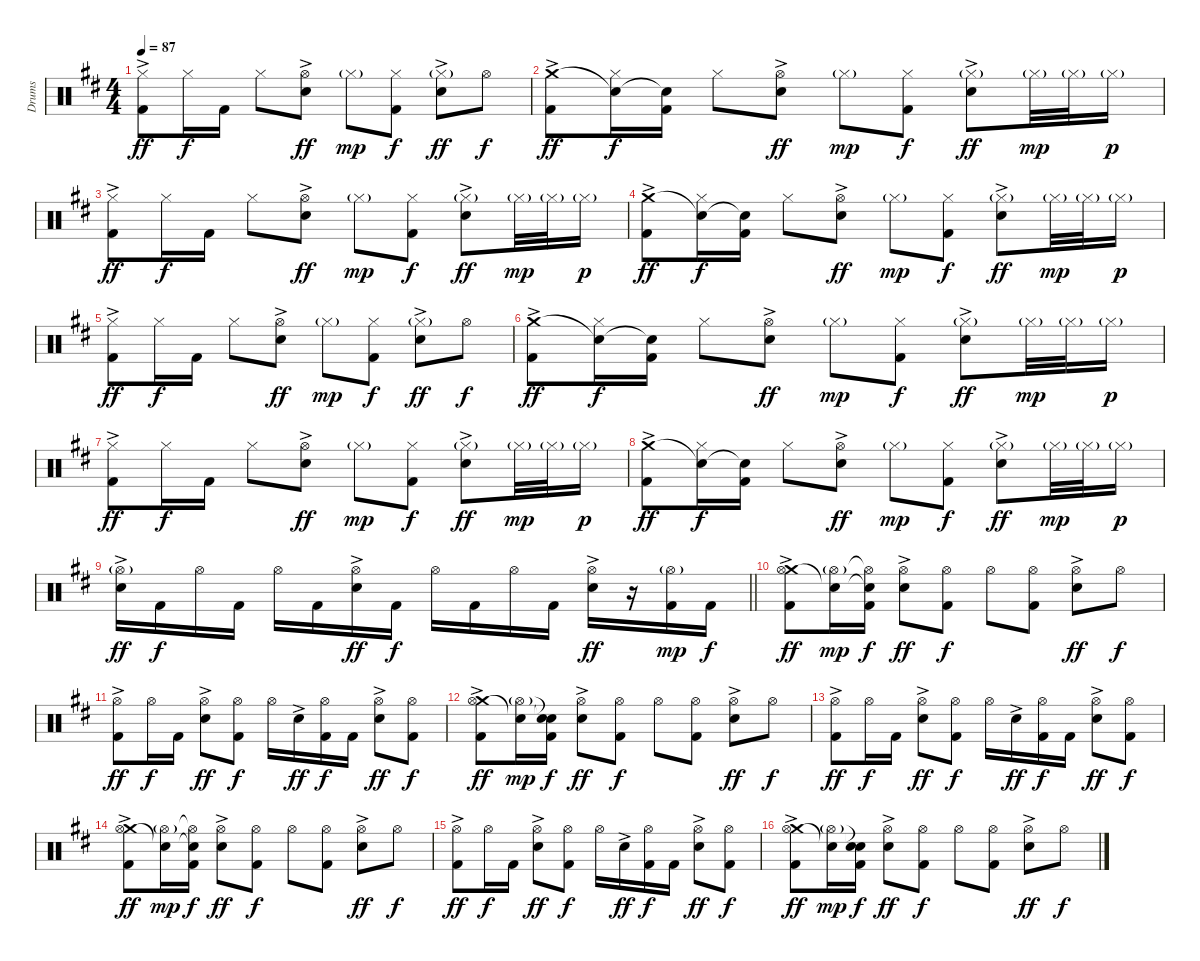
\track ("Drums" "Drums") {instrument percussion}
\staff {score}
\articulation defaults
\ts (4 4)
\tempo 87
\clef neutral
\ks d
("Hi-Hat (closed)" "Kick (hit) 2"{ac}).8{dy ff} "Hi-Hat (closed)".16{dy f} "Kick (hit) 2".16 "Hi-Hat (closed)".8 ("Hi-Hat (open)" "Electric Snare (hit)"{ac}).8{dy ff} "Hi-Hat (closed)"{g}.8{dy mp} ("Hi-Hat (closed)" "Kick (hit) 2").8{dy f} ("Hi-Hat (closed)"{g} "Electric Snare (hit)"{ac}).8{dy ff} "Hi-Hat (open)".8{dy f} |
("Crash medium (hit)" "Kick (hit) 2"{ac}).8{dy ff} ("Snare (hit)"{t} "Hi-Hat (closed)").16{dy f} ("Snare (hit)"{t} "Kick (hit) 2").16 "Hi-Hat (closed)".8 ("Hi-Hat (open)" "Electric Snare (hit)"{ac}).8{dy ff} "Hi-Hat (closed)"{g}.8{dy mp} ("Hi-Hat (closed)" "Kick (hit) 2").8{dy f} ("Hi-Hat (closed)"{g} "Electric Snare (hit)"{ac}).8{dy ff} "Hi-Hat (closed)"{g}.32{dy mp} "Hi-Hat (closed)"{g}.32 "Hi-Hat (closed)"{g}.16{dy p} |
("Hi-Hat (closed)" "Kick (hit) 2"{ac}).8{dy ff} "Hi-Hat (closed)".16{dy f} "Kick (hit) 2".16 "Hi-Hat (closed)".8 ("Hi-Hat (open)" "Electric Snare (hit)"{ac}).8{dy ff} "Hi-Hat (closed)"{g}.8{dy mp} ("Hi-Hat (closed)" "Kick (hit) 2").8{dy f} ("Hi-Hat (closed)"{g} "Electric Snare (hit)"{ac}).8{dy ff} "Hi-Hat (closed)"{g}.32{dy mp} "Hi-Hat (closed)"{g}.32 "Hi-Hat (closed)"{g}.16{dy p} |
("Crash medium (hit)" "Kick (hit) 2"{ac}).8{dy ff} ("Snare (hit)"{t} "Hi-Hat (closed)").16{dy f} ("Snare (hit)"{t} "Kick (hit) 2").16 "Hi-Hat (closed)".8 ("Hi-Hat (open)" "Electric Snare (hit)"{ac}).8{dy ff} "Hi-Hat (closed)"{g}.8{dy mp} ("Hi-Hat (closed)" "Kick (hit) 2").8{dy f} ("Hi-Hat (closed)"{g} "Electric Snare (hit)"{ac}).8{dy ff} "Hi-Hat (closed)"{g}.32{dy mp} "Hi-Hat (closed)"{g}.32 "Hi-Hat (closed)"{g}.16{dy p} |
("Hi-Hat (closed)" "Kick (hit) 2"{ac}).8{dy ff} "Hi-Hat (closed)".16{dy f} "Kick (hit) 2".16 "Hi-Hat (closed)".8 ("Hi-Hat (open)" "Electric Snare (hit)"{ac}).8{dy ff} "Hi-Hat (closed)"{g}.8{dy mp} ("Hi-Hat (closed)" "Kick (hit) 2").8{dy f} ("Hi-Hat (closed)"{g} "Electric Snare (hit)"{ac}).8{dy ff} "Hi-Hat (open)".8{dy f} |
("Crash medium (hit)" "Kick (hit) 2"{ac}).8{dy ff} ("Snare (hit)"{t} "Hi-Hat (closed)").16{dy f} ("Snare (hit)"{t} "Kick (hit) 2").16 "Hi-Hat (closed)".8 ("Hi-Hat (open)" "Electric Snare (hit)"{ac}).8{dy ff} "Hi-Hat (closed)"{g}.8{dy mp} ("Hi-Hat (closed)" "Kick (hit) 2").8{dy f} ("Hi-Hat (closed)"{g} "Electric Snare (hit)"{ac}).8{dy ff} "Hi-Hat (closed)"{g}.32{dy mp} "Hi-Hat (closed)"{g}.32 "Hi-Hat (closed)"{g}.16{dy p} |
("Hi-Hat (closed)" "Kick (hit) 2"{ac}).8{dy ff} "Hi-Hat (closed)".16{dy f} "Kick (hit) 2".16 "Hi-Hat (closed)".8 ("Hi-Hat (open)" "Electric Snare (hit)"{ac}).8{dy ff} "Hi-Hat (closed)"{g}.8{dy mp} ("Hi-Hat (closed)" "Kick (hit) 2").8{dy f} ("Hi-Hat (closed)"{g} "Electric Snare (hit)"{ac}).8{dy ff} "Hi-Hat (closed)"{g}.32{dy mp} "Hi-Hat (closed)"{g}.32 "Hi-Hat (closed)"{g}.16{dy p} |
("Crash medium (hit)" "Kick (hit) 2"{ac}).8{dy ff} ("Snare (hit)"{t} "Hi-Hat (closed)").16{dy f} ("Snare (hit)"{t} "Kick (hit) 2").16 "Hi-Hat (closed)".8 ("Hi-Hat (open)" "Electric Snare (hit)"{ac}).8{dy ff} "Hi-Hat (closed)"{g}.8{dy mp} ("Hi-Hat (closed)" "Kick (hit) 2").8{dy f} ("Hi-Hat (closed)"{g} "Electric Snare (hit)"{ac}).8{dy ff} "Hi-Hat (closed)"{g}.32{dy mp} "Hi-Hat (closed)"{g}.32 "Hi-Hat (closed)"{g}.16{dy p} |
\barLineRight lightlight
("Hi-Hat (open)"{g} "Electric Snare (hit)"{ac}).16{dy ff} "Kick (hit) 2".16{dy f} "Hi-Hat (open)".16 "Kick (hit) 2".16 "Hi-Hat (open)".16 "Kick (hit) 2".16 ("Hi-Hat (open)" "Electric Snare (hit)"{ac}).16{dy ff} "Kick (hit) 2".16{dy f} "Hi-Hat (open)".16 "Kick (hit) 2".16 "Hi-Hat (open)".16 "Kick (hit) 2".16 ("Hi-Hat (open)" "Electric Snare (hit)"{ac}).16{dy ff} r.16 ("Hi-Hat (open)"{g} "Kick (hit) 2").16{dy mp} "Kick (hit) 2".16{dy f} |
("Crash medium (hit)" "Hi-Hat (open)" "Kick (hit) 2"{ac}).8{dy ff} ("Snare (hit)"{t} "Hi-Hat (open)"{g}).16{dy mp} ("Snare (hit)"{t} "Hi-Hat (open)"{t} "Kick (hit) 2").16{dy f} ("Hi-Hat (open)" "Electric Snare (hit)"{ac}).8{dy ff} ("Hi-Hat (open)" "Kick (hit) 2").8{dy f} "Hi-Hat (open)".8 ("Hi-Hat (open)" "Kick (hit) 2").8 ("Hi-Hat (open)" "Electric Snare (hit)"{ac}).8{dy ff} "Hi-Hat (open)".8{dy f} |
("Hi-Hat (open)" "Kick (hit) 2"{ac}).8{dy ff} "Hi-Hat (open)".16{dy f} "Kick (hit) 2".16 ("Hi-Hat (open)" "Electric Snare (hit)"{ac}).8{dy ff} ("Hi-Hat (open)" "Kick (hit) 2").8{dy f} "Hi-Hat (open)".16 "Electric Snare (hit)"{ac}.16{dy ff} ("Hi-Hat (open)" "Kick (hit) 2").16{dy f} "Kick (hit) 2".16 ("Hi-Hat (open)" "Electric Snare (hit)"{ac}).8{dy ff} ("Hi-Hat (open)" "Kick (hit) 2").8{dy f} |
("Crash medium (hit)" "Hi-Hat (open)" "Kick (hit) 2"{ac}).8{dy ff} ("Snare (hit)"{t} "Hi-Hat (open)"{g}).16{dy mp} ("Snare (hit)"{t} "Snare (hit)"{t} "Kick (hit) 2").16{dy f} ("Hi-Hat (open)" "Electric Snare (hit)"{ac}).8{dy ff} ("Hi-Hat (open)" "Kick (hit) 2").8{dy f} "Hi-Hat (open)".8 ("Hi-Hat (open)" "Kick (hit) 2").8 ("Hi-Hat (open)" "Electric Snare (hit)"{ac}).8{dy ff} "Hi-Hat (open)".8{dy f} |
("Hi-Hat (open)" "Kick (hit) 2"{ac}).8{dy ff} "Hi-Hat (open)".16{dy f} "Kick (hit) 2".16 ("Hi-Hat (open)" "Electric Snare (hit)"{ac}).8{dy ff} ("Hi-Hat (open)" "Kick (hit) 2").8{dy f} "Hi-Hat (open)".16 "Electric Snare (hit)"{ac}.16{dy ff} ("Hi-Hat (open)" "Kick (hit) 2").16{dy f} "Kick (hit) 2".16 ("Hi-Hat (open)" "Electric Snare (hit)"{ac}).8{dy ff} ("Hi-Hat (open)" "Kick (hit) 2").8{dy f} |
("Crash medium (hit)" "Hi-Hat (open)" "Kick (hit) 2"{ac}).8{dy ff} ("Snare (hit)"{t} "Hi-Hat (open)"{g}).16{dy mp} ("Snare (hit)"{t} "Hi-Hat (open)"{t} "Kick (hit) 2").16{dy f} ("Hi-Hat (open)" "Electric Snare (hit)"{ac}).8{dy ff} ("Hi-Hat (open)" "Kick (hit) 2").8{dy f} "Hi-Hat (open)".8 ("Hi-Hat (open)" "Kick (hit) 2").8 ("Hi-Hat (open)" "Electric Snare (hit)"{ac}).8{dy ff} "Hi-Hat (open)".8{dy f} |
("Hi-Hat (open)" "Kick (hit) 2"{ac}).8{dy ff} "Hi-Hat (open)".16{dy f} "Kick (hit) 2".16 ("Hi-Hat (open)" "Electric Snare (hit)"{ac}).8{dy ff} ("Hi-Hat (open)" "Kick (hit) 2").8{dy f} "Hi-Hat (open)".16 "Electric Snare (hit)"{ac}.16{dy ff} ("Hi-Hat (open)" "Kick (hit) 2").16{dy f} "Kick (hit) 2".16 ("Hi-Hat (open)" "Electric Snare (hit)"{ac}).8{dy ff} ("Hi-Hat (open)" "Kick (hit) 2").8{dy f} |
("Crash medium (hit)" "Hi-Hat (open)" "Kick (hit) 2"{ac}).8{dy ff} ("Snare (hit)"{t} "Hi-Hat (open)"{g}).16{dy mp} ("Snare (hit)"{t} "Snare (hit)"{t} "Kick (hit) 2").16{dy f} ("Hi-Hat (open)" "Electric Snare (hit)"{ac}).8{dy ff} ("Hi-Hat (open)" "Kick (hit) 2").8{dy f} "Hi-Hat (open)".8 ("Hi-Hat (open)" "Kick (hit) 2").8 ("Hi-Hat (open)" "Electric Snare (hit)"{ac}).8{dy ff} "Hi-Hat (open)".8{dy f}
